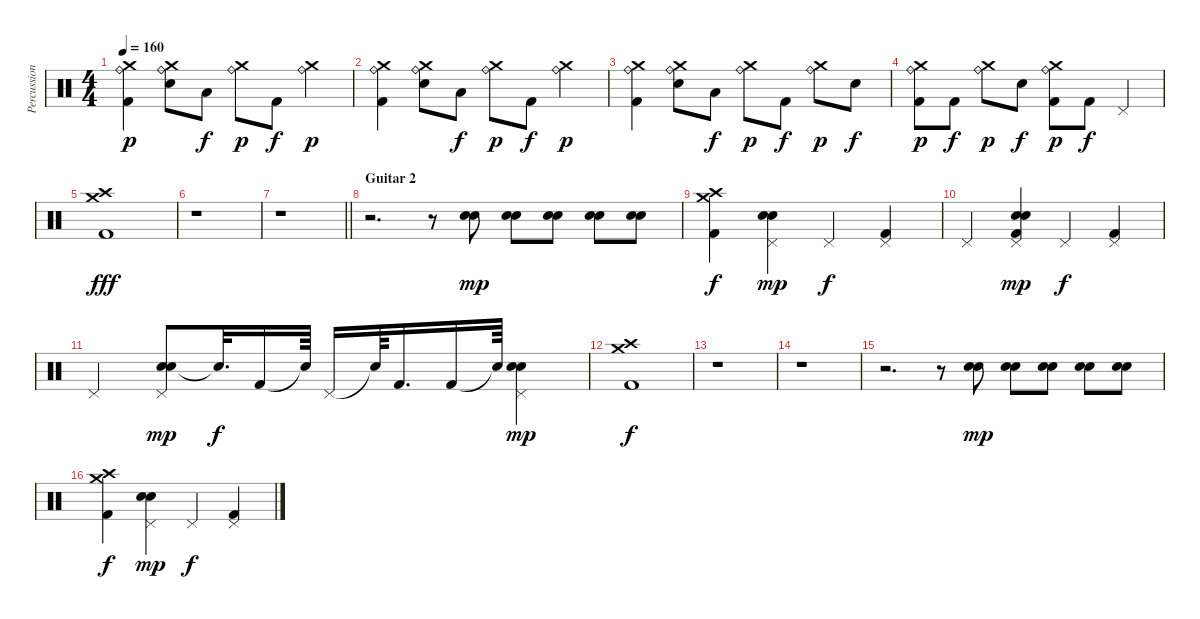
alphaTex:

\track ("Percussion" "Percussion") {instrument percussion}
\staff {score}
\articulation defaults
\ts (4 4)
\tempo 160
\clef neutral
\ks c
("Ride (bell)" "Kick (hit) 2" "Crash medium (hit)").4{dy p} ("Ride (bell)" "Snare (hit) 2" "Crash medium (hit)").8 "Low Floor Tom (hit)".8{dy f} ("Ride (bell)" "Crash medium (hit)").8{dy p} "Kick (hit) 2".8{dy f} ("Ride (bell)" "Crash medium (hit)").4{dy p} |
("Kick (hit) 2" "Ride (bell)" "Crash medium (hit)").4 ("Snare (hit) 2" "Ride (bell)" "Crash medium (hit)").8 "Low Floor Tom (hit)".8{dy f} ("Ride (bell)" "Crash medium (hit)").8{dy p} "Kick (hit) 2".8{dy f} ("Ride (bell)" "Crash medium (hit)").4{dy p} |
("Kick (hit) 2" "Ride (bell)" "Crash medium (hit)").4 ("Snare (hit) 2" "Ride (bell)" "Crash medium (hit)").8 "Low Floor Tom (hit)".8{dy f} ("Ride (bell)" "Crash medium (hit)").8{dy p} "Kick (hit) 2".8{dy f} ("Ride (bell)" "Crash medium (hit)").8{dy p} "Snare (hit) 2".8{dy f} |
("Ride (bell)" "Kick (hit) 2" "Crash medium (hit)").8{dy p} "Kick (hit) 2".8{dy f} ("Ride (bell)" "Crash medium (hit)").8{dy p} "Snare (hit) 2".8{dy f} ("Ride (bell)" "Kick (hit) 2" "Crash medium (hit)").8{dy p} "Kick (hit) 2".8{dy f} "Pedal Hi-Hat (hit)".4 |
("Kick (hit) 2" "Crash high (hit)" "Crash medium (hit)").1{dy fff} |
r.1 |
\barLineRight lightlight
r.1 |
\section ("" "Guitar 2")
r.2{d} r.8 ("Snare (hit) 2" "Electric Snare (hit)").8{dy mp} ("Snare (hit) 2" "Electric Snare (hit)").8 ("Snare (hit) 2" "Electric Snare (hit)").8 ("Snare (hit) 2" "Electric Snare (hit)").8 ("Snare (hit) 2" "Electric Snare (hit)").8 |
("Crash medium (hit)" "Kick (hit) 2" "Crash high (hit)").4{dy f} ("Snare (hit) 2" "Electric Snare (hit)" "Pedal Hi-Hat (hit)").4{dy mp} "Pedal Hi-Hat (hit)".4{dy f} ("Pedal Hi-Hat (hit)" "Kick (hit) 2").4 |
"Pedal Hi-Hat (hit)".4 ("Snare (hit) 2" "Pedal Hi-Hat (hit)" "Kick (hit) 2" "Electric Snare (hit)").4{dy mp} "Pedal Hi-Hat (hit)".4{dy f} ("Kick (hit) 2" "Pedal Hi-Hat (hit)").4 |
"Pedal Hi-Hat (hit)".4 ("Snare (hit) 2" "Electric Snare (hit)" "Pedal Hi-Hat (hit)").8{dy mp} "Snare (hit)"{t}.32{d dy f} "Kick (hit) 2".16 "Snare (hit)"{t}.64 "Pedal Hi-Hat (hit)".16 "Snare (hit)"{t}.64 "Kick (hit) 2".16{d} "Kick (hit) 2".16 "Snare (hit)"{t}.64 ("Snare (hit) 2" "Electric Snare (hit)" "Pedal Hi-Hat (hit)").4{dy mp} |
("Kick (hit) 2" "Crash high (hit)" "Crash medium (hit)").1{dy f} |
r.1 |
r.1 |
r.2{d} r.8 ("Snare (hit) 2" "Electric Snare (hit)").8{dy mp} ("Snare (hit) 2" "Electric Snare (hit)").8 ("Snare (hit) 2" "Electric Snare (hit)").8 ("Snare (hit) 2" "Electric Snare (hit)").8 ("Snare (hit) 2" "Electric Snare (hit)").8 |
("Crash medium (hit)" "Kick (hit) 2" "Crash high (hit)").4{dy f} ("Snare (hit) 2" "Electric Snare (hit)" "Pedal Hi-Hat (hit)").4{dy mp} "Pedal Hi-Hat (hit)".4{dy f} ("Pedal Hi-Hat (hit)" "Kick (hit) 2").4
